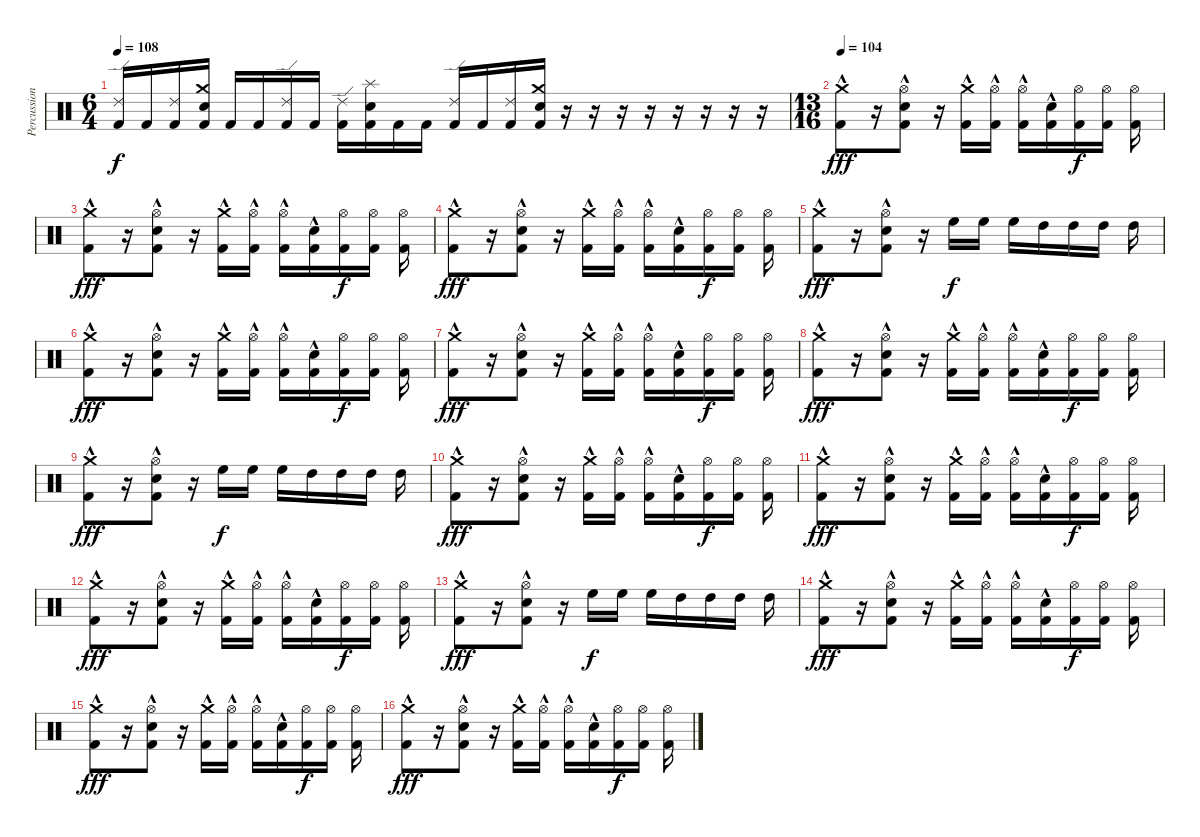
\track ("Percussion" "Percussion") {instrument percussion}
\staff {score}
\articulation defaults
\ts (6 4)
\tempo 108
\clef neutral
\ks c
("Ride (edge) 2" "Kick (hit) 2").16{dy f} "Kick (hit) 2".16 ("Ride (edge) 2" "Kick (hit) 2").16 ("Crash medium (hit)" "Electric Snare (hit)" "Kick (hit) 2").16 "Kick (hit) 2".16 "Kick (hit) 2".16 ("Ride (edge) 2" "Kick (hit) 2").16 "Kick (hit) 2".16 ("Ride (edge) 2" "Kick (hit) 2").16 ("Splash (hit)" "Electric Snare (hit)" "Kick (hit) 2").16 "Kick (hit) 2".16 "Kick (hit) 2".16 ("Ride (edge) 2" "Kick (hit) 2").16 "Kick (hit) 2".16 ("Ride (edge) 2" "Kick (hit) 2").16 ("Electric Snare (hit)" "Crash medium (hit)" "Kick (hit) 2").16 r.16 r.16 r.16 r.16 r.16 r.16 r.16 r.16 |
\ts (13 16)
\tempo 104
("Crash medium (hit)"{hac} "Kick (hit) 2"{hac}).8{dy fff} r.16 ("Hi-Hat (open)"{hac} "Electric Snare (hit)"{hac} "Kick (hit) 2"{hac}).8 r.16 ("Crash medium (hit)" "Kick (hit) 2"{hac}).16 ("Hi-Hat (open)" "Kick (hit) 2"{hac}).16 ("Hi-Hat (open)" "Kick (hit) 2"{hac}).16 ("Electric Snare (hit)"{hac} "Kick (hit) 2"{hac}).16 ("Hi-Hat (open)" "Kick (hit) 2").16{dy f} ("Hi-Hat (open)" "Kick (hit) 2").16 ("Hi-Hat (open)" "Kick (hit) 2").16 |
("Crash medium (hit)"{hac} "Kick (hit) 2"{hac}).8{dy fff} r.16 ("Hi-Hat (open)"{hac} "Electric Snare (hit)"{hac} "Kick (hit) 2"{hac}).8 r.16 ("Crash medium (hit)" "Kick (hit) 2"{hac}).16 ("Hi-Hat (open)" "Kick (hit) 2"{hac}).16 ("Hi-Hat (open)" "Kick (hit) 2"{hac}).16 ("Electric Snare (hit)"{hac} "Kick (hit) 2"{hac}).16 ("Hi-Hat (open)" "Kick (hit) 2").16{dy f} ("Hi-Hat (open)" "Kick (hit) 2").16 ("Hi-Hat (open)" "Kick (hit) 2").16 |
("Crash medium (hit)"{hac} "Kick (hit) 2"{hac}).8{dy fff} r.16 ("Hi-Hat (open)"{hac} "Electric Snare (hit)"{hac} "Kick (hit) 2"{hac}).8 r.16 ("Crash medium (hit)" "Kick (hit) 2"{hac}).16 ("Hi-Hat (open)" "Kick (hit) 2"{hac}).16 ("Hi-Hat (open)" "Kick (hit) 2"{hac}).16 ("Electric Snare (hit)"{hac} "Kick (hit) 2"{hac}).16 ("Hi-Hat (open)" "Kick (hit) 2").16{dy f} ("Hi-Hat (open)" "Kick (hit) 2").16 ("Hi-Hat (open)" "Kick (hit) 2").16 |
("Crash medium (hit)"{hac} "Kick (hit) 2"{hac}).8{dy fff} r.16 ("Hi-Hat (open)"{hac} "Electric Snare (hit)"{hac} "Kick (hit) 2"{hac}).8 r.16 "High Floor Tom (hit)".16{dy f} "High Floor Tom (hit)".16 "High Floor Tom (hit)".16 "High Tom (hit)".16 "High Tom (hit)".16 "High Tom (hit)".16 "High Tom (hit)".16 |
("Crash medium (hit)"{hac} "Kick (hit) 2"{hac}).8{dy fff} r.16 ("Hi-Hat (open)"{hac} "Electric Snare (hit)"{hac} "Kick (hit) 2"{hac}).8 r.16 ("Crash medium (hit)" "Kick (hit) 2"{hac}).16 ("Hi-Hat (open)" "Kick (hit) 2"{hac}).16 ("Hi-Hat (open)" "Kick (hit) 2"{hac}).16 ("Electric Snare (hit)"{hac} "Kick (hit) 2"{hac}).16 ("Hi-Hat (open)" "Kick (hit) 2").16{dy f} ("Hi-Hat (open)" "Kick (hit) 2").16 ("Hi-Hat (open)" "Kick (hit) 2").16 |
("Crash medium (hit)"{hac} "Kick (hit) 2"{hac}).8{dy fff} r.16 ("Hi-Hat (open)"{hac} "Electric Snare (hit)"{hac} "Kick (hit) 2"{hac}).8 r.16 ("Crash medium (hit)" "Kick (hit) 2"{hac}).16 ("Hi-Hat (open)" "Kick (hit) 2"{hac}).16 ("Hi-Hat (open)" "Kick (hit) 2"{hac}).16 ("Electric Snare (hit)"{hac} "Kick (hit) 2"{hac}).16 ("Hi-Hat (open)" "Kick (hit) 2").16{dy f} ("Hi-Hat (open)" "Kick (hit) 2").16 ("Hi-Hat (open)" "Kick (hit) 2").16 |
("Crash medium (hit)"{hac} "Kick (hit) 2"{hac}).8{dy fff} r.16 ("Hi-Hat (open)"{hac} "Electric Snare (hit)"{hac} "Kick (hit) 2"{hac}).8 r.16 ("Crash medium (hit)" "Kick (hit) 2"{hac}).16 ("Hi-Hat (open)" "Kick (hit) 2"{hac}).16 ("Hi-Hat (open)" "Kick (hit) 2"{hac}).16 ("Electric Snare (hit)"{hac} "Kick (hit) 2"{hac}).16 ("Hi-Hat (open)" "Kick (hit) 2").16{dy f} ("Hi-Hat (open)" "Kick (hit) 2").16 ("Hi-Hat (open)" "Kick (hit) 2").16 |
("Crash medium (hit)"{hac} "Kick (hit) 2"{hac}).8{dy fff} r.16 ("Hi-Hat (open)"{hac} "Electric Snare (hit)"{hac} "Kick (hit) 2"{hac}).8 r.16 "High Floor Tom (hit)".16{dy f} "High Floor Tom (hit)".16 "High Floor Tom (hit)".16 "High Tom (hit)".16 "High Tom (hit)".16 "High Tom (hit)".16 "High Tom (hit)".16 |
("Crash medium (hit)"{hac} "Kick (hit) 2"{hac}).8{dy fff} r.16 ("Hi-Hat (open)"{hac} "Electric Snare (hit)"{hac} "Kick (hit) 2"{hac}).8 r.16 ("Crash medium (hit)" "Kick (hit) 2"{hac}).16 ("Hi-Hat (open)" "Kick (hit) 2"{hac}).16 ("Hi-Hat (open)" "Kick (hit) 2"{hac}).16 ("Electric Snare (hit)"{hac} "Kick (hit) 2"{hac}).16 ("Hi-Hat (open)" "Kick (hit) 2").16{dy f} ("Hi-Hat (open)" "Kick (hit) 2").16 ("Hi-Hat (open)" "Kick (hit) 2").16 |
("Crash medium (hit)"{hac} "Kick (hit) 2"{hac}).8{dy fff} r.16 ("Hi-Hat (open)"{hac} "Electric Snare (hit)"{hac} "Kick (hit) 2"{hac}).8 r.16 ("Crash medium (hit)" "Kick (hit) 2"{hac}).16 ("Hi-Hat (open)" "Kick (hit) 2"{hac}).16 ("Hi-Hat (open)" "Kick (hit) 2"{hac}).16 ("Electric Snare (hit)"{hac} "Kick (hit) 2"{hac}).16 ("Hi-Hat (open)" "Kick (hit) 2").16{dy f} ("Hi-Hat (open)" "Kick (hit) 2").16 ("Hi-Hat (open)" "Kick (hit) 2").16 |
("Crash medium (hit)"{hac} "Kick (hit) 2"{hac}).8{dy fff} r.16 ("Hi-Hat (open)"{hac} "Electric Snare (hit)"{hac} "Kick (hit) 2"{hac}).8 r.16 ("Crash medium (hit)" "Kick (hit) 2"{hac}).16 ("Hi-Hat (open)" "Kick (hit) 2"{hac}).16 ("Hi-Hat (open)" "Kick (hit) 2"{hac}).16 ("Electric Snare (hit)"{hac} "Kick (hit) 2"{hac}).16 ("Hi-Hat (open)" "Kick (hit) 2").16{dy f} ("Hi-Hat (open)" "Kick (hit) 2").16 ("Hi-Hat (open)" "Kick (hit) 2").16 |
("Crash medium (hit)"{hac} "Kick (hit) 2"{hac}).8{dy fff} r.16 ("Hi-Hat (open)"{hac} "Electric Snare (hit)"{hac} "Kick (hit) 2"{hac}).8 r.16 "High Floor Tom (hit)".16{dy f} "High Floor Tom (hit)".16 "High Floor Tom (hit)".16 "High Tom (hit)".16 "High Tom (hit)".16 "High Tom (hit)".16 "High Tom (hit)".16 |
("Crash medium (hit)"{hac} "Kick (hit) 2"{hac}).8{dy fff} r.16 ("Hi-Hat (open)"{hac} "Electric Snare (hit)"{hac} "Kick (hit) 2"{hac}).8 r.16 ("Crash medium (hit)" "Kick (hit) 2"{hac}).16 ("Hi-Hat (open)" "Kick (hit) 2"{hac}).16 ("Hi-Hat (open)" "Kick (hit) 2"{hac}).16 ("Electric Snare (hit)"{hac} "Kick (hit) 2"{hac}).16 ("Hi-Hat (open)" "Kick (hit) 2").16{dy f} ("Hi-Hat (open)" "Kick (hit) 2").16 ("Hi-Hat (open)" "Kick (hit) 2").16 |
("Crash medium (hit)"{hac} "Kick (hit) 2"{hac}).8{dy fff} r.16 ("Hi-Hat (open)"{hac} "Electric Snare (hit)"{hac} "Kick (hit) 2"{hac}).8 r.16 ("Crash medium (hit)" "Kick (hit) 2"{hac}).16 ("Hi-Hat (open)" "Kick (hit) 2"{hac}).16 ("Hi-Hat (open)" "Kick (hit) 2"{hac}).16 ("Electric Snare (hit)"{hac} "Kick (hit) 2"{hac}).16 ("Hi-Hat (open)" "Kick (hit) 2").16{dy f} ("Hi-Hat (open)" "Kick (hit) 2").16 ("Hi-Hat (open)" "Kick (hit) 2").16 |
("Crash medium (hit)"{hac} "Kick (hit) 2"{hac}).8{dy fff} r.16 ("Hi-Hat (open)"{hac} "Electric Snare (hit)"{hac} "Kick (hit) 2"{hac}).8 r.16 ("Crash medium (hit)" "Kick (hit) 2"{hac}).16 ("Hi-Hat (open)" "Kick (hit) 2"{hac}).16 ("Hi-Hat (open)" "Kick (hit) 2"{hac}).16 ("Electric Snare (hit)"{hac} "Kick (hit) 2"{hac}).16 ("Hi-Hat (open)" "Kick (hit) 2").16{dy f} ("Hi-Hat (open)" "Kick (hit) 2").16 ("Hi-Hat (open)" "Kick (hit) 2").16
